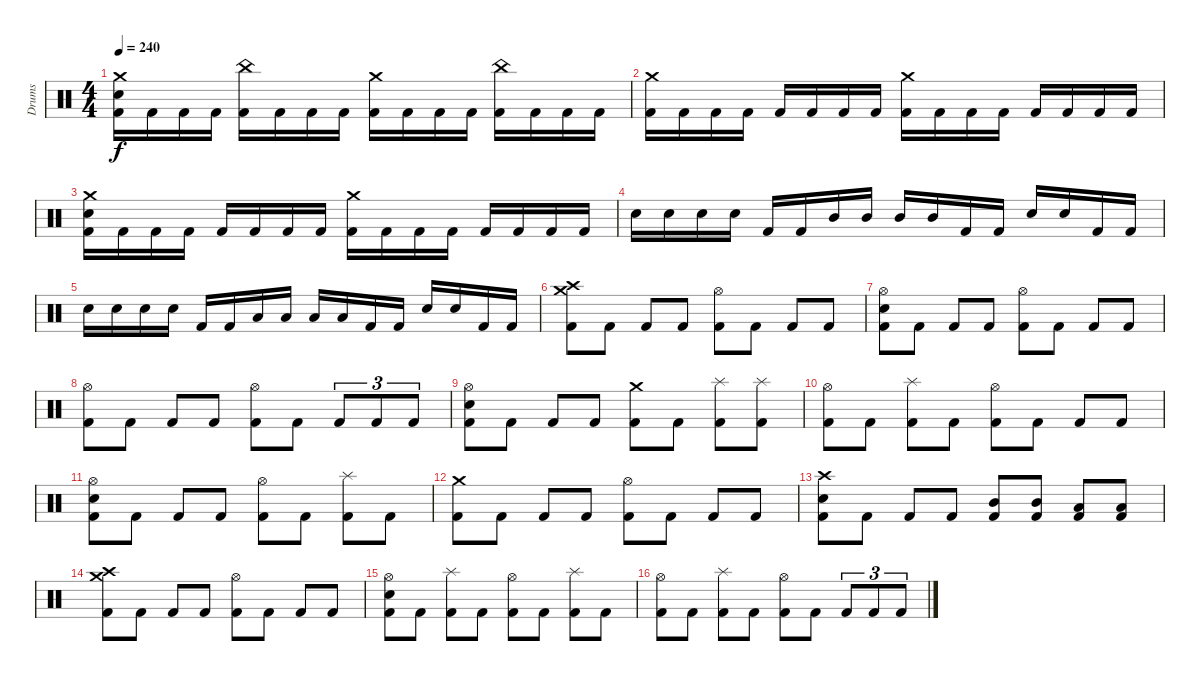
\track ("Drums" "Drums") {instrument percussion}
\staff
\articulation defaults
\ts (4 4)
\tempo 240
\clef neutral
\ks c
("Crash medium (hit)" "Electric Snare (hit)" "Kick (hit) 2").16{dy f} "Kick (hit) 2".16 "Kick (hit) 2".16 "Kick (hit) 2".16 ("China (hit)" "Kick (hit) 2").16 "Kick (hit) 2".16 "Kick (hit) 2".16 "Kick (hit) 2".16 ("Crash medium (hit)" "Kick (hit) 2").16 "Kick (hit) 2".16 "Kick (hit) 2".16 "Kick (hit) 2".16 ("China (hit)" "Kick (hit) 2").16 "Kick (hit) 2".16 "Kick (hit) 2".16 "Kick (hit) 2".16 |
("Crash medium (hit)" "Kick (hit) 2").16 "Kick (hit) 2".16 "Kick (hit) 2".16 "Kick (hit) 2".16 "Kick (hit) 2".16 "Kick (hit) 2".16 "Kick (hit) 2".16 "Kick (hit) 2".16 ("Crash medium (hit)" "Kick (hit) 2").16 "Kick (hit) 2".16 "Kick (hit) 2".16 "Kick (hit) 2".16 "Kick (hit) 2".16 "Kick (hit) 2".16 "Kick (hit) 2".16 "Kick (hit) 2".16 |
("Crash medium (hit)" "Electric Snare (hit)" "Kick (hit) 2").16 "Kick (hit) 2".16 "Kick (hit) 2".16 "Kick (hit) 2".16 "Kick (hit) 2".16 "Kick (hit) 2".16 "Kick (hit) 2".16 "Kick (hit) 2".16 ("Crash medium (hit)" "Kick (hit) 2").16 "Kick (hit) 2".16 "Kick (hit) 2".16 "Kick (hit) 2".16 "Kick (hit) 2".16 "Kick (hit) 2".16 "Kick (hit) 2".16 "Kick (hit) 2".16 |
"Electric Snare (hit)".16 "Electric Snare (hit)".16 "Electric Snare (hit)".16 "Electric Snare (hit)".16 "Kick (hit) 2".16 "Kick (hit) 2".16 "Mid Tom (hit)".16 "Mid Tom (hit)".16 "Mid Tom (hit)".16 "Mid Tom (hit)".16 "Kick (hit) 2".16 "Kick (hit) 2".16 "Electric Snare (hit)".16 "Electric Snare (hit)".16 "Kick (hit) 2".16 "Kick (hit) 2".16 |
"Electric Snare (hit)".16 "Electric Snare (hit)".16 "Electric Snare (hit)".16 "Electric Snare (hit)".16 "Kick (hit) 2".16 "Kick (hit) 2".16 "Low Tom (hit)".16 "Low Tom (hit)".16 "Low Tom (hit)".16 "Low Tom (hit)".16 "Kick (hit) 2".16 "Kick (hit) 2".16 "Electric Snare (hit)".16 "Electric Snare (hit)".16 "Kick (hit) 2".16 "Kick (hit) 2".16 |
("Crash medium (hit)" "Crash high (hit)" "Kick (hit) 2").8 "Kick (hit) 2".8 "Kick (hit) 2".8 "Kick (hit) 2".8 ("Hi-Hat (open)" "Kick (hit) 2").8 "Kick (hit) 2".8 "Kick (hit) 2".8 "Kick (hit) 2".8 |
("Hi-Hat (open)" "Electric Snare (hit)" "Kick (hit) 2").8 "Kick (hit) 2".8 "Kick (hit) 2".8 "Kick (hit) 2".8 ("Hi-Hat (open)" "Kick (hit) 2").8 "Kick (hit) 2".8 "Kick (hit) 2".8 "Kick (hit) 2".8 |
("Hi-Hat (open)" "Kick (hit) 2").8 "Kick (hit) 2".8 "Kick (hit) 2".8 "Kick (hit) 2".8 ("Hi-Hat (open)" "Kick (hit) 2").8 "Kick (hit) 2".8 "Kick (hit) 2".8{tu (3 2)} "Kick (hit) 2".8{tu (3 2)} "Kick (hit) 2".8{tu (3 2)} |
("Hi-Hat (open)" "Electric Snare (hit)" "Kick (hit) 2").8 "Kick (hit) 2".8 "Kick (hit) 2".8 "Kick (hit) 2".8 ("Crash medium (hit)" "Kick (hit) 2").8 "Kick (hit) 2".8 ("Splash (hit)" "Kick (hit) 2").8 ("Splash (hit)" "Kick (hit) 2").8 |
("Hi-Hat (open)" "Kick (hit) 2").8 "Kick (hit) 2".8 ("Splash (hit)" "Kick (hit) 2").8 "Kick (hit) 2".8 ("Hi-Hat (open)" "Kick (hit) 2").8 "Kick (hit) 2".8 "Kick (hit) 2".8 "Kick (hit) 2".8 |
("Hi-Hat (open)" "Electric Snare (hit)" "Kick (hit) 2").8 "Kick (hit) 2".8 "Kick (hit) 2".8 "Kick (hit) 2".8 ("Hi-Hat (open)" "Kick (hit) 2").8 "Kick (hit) 2".8 ("Splash (hit)" "Kick (hit) 2").8 "Kick (hit) 2".8 |
("Crash medium (hit)" "Kick (hit) 2").8 "Kick (hit) 2".8 "Kick (hit) 2".8 "Kick (hit) 2".8 ("Hi-Hat (open)" "Kick (hit) 2").8 "Kick (hit) 2".8 "Kick (hit) 2".8 "Kick (hit) 2".8 |
("Crash high (hit)" "Electric Snare (hit)" "Kick (hit) 2").8 "Kick (hit) 2".8 "Kick (hit) 2".8 "Kick (hit) 2".8 ("Mid Tom (hit)" "Kick (hit) 2").8 ("Mid Tom (hit)" "Kick (hit) 2").8 ("Low Tom (hit)" "Kick (hit) 2").8 ("Low Tom (hit)" "Kick (hit) 2").8 |
("Crash medium (hit)" "Crash high (hit)" "Kick (hit) 2").8 "Kick (hit) 2".8 "Kick (hit) 2".8 "Kick (hit) 2".8 ("Hi-Hat (open)" "Kick (hit) 2").8 "Kick (hit) 2".8 "Kick (hit) 2".8 "Kick (hit) 2".8 |
("Hi-Hat (open)" "Electric Snare (hit)" "Kick (hit) 2").8 "Kick (hit) 2".8 ("Splash (hit)" "Kick (hit) 2").8 "Kick (hit) 2".8 ("Hi-Hat (open)" "Kick (hit) 2").8 "Kick (hit) 2".8 ("Splash (hit)" "Kick (hit) 2").8 "Kick (hit) 2".8 |
("Hi-Hat (open)" "Kick (hit) 2").8 "Kick (hit) 2".8 ("Splash (hit)" "Kick (hit) 2").8 "Kick (hit) 2".8 ("Hi-Hat (open)" "Kick (hit) 2").8 "Kick (hit) 2".8 "Kick (hit) 2".8{tu (3 2)} "Kick (hit) 2".8{tu (3 2)} "Kick (hit) 2".8{tu (3 2)}
